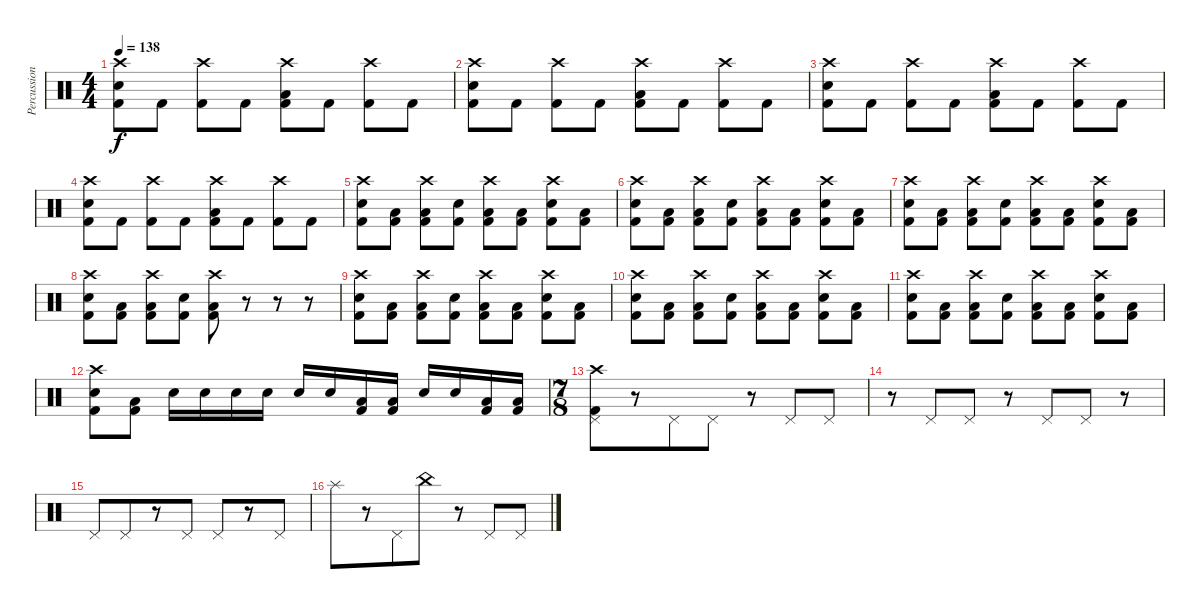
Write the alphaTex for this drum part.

\track ("Percussion" "Percussion") {instrument percussion}
\staff {score}
\articulation defaults
\ts (4 4)
\tempo 138
\clef neutral
\ks c
("Crash high (hit)" "Electric Snare (hit)" "Kick (hit) 2").8{dy f} "Kick (hit) 2".8 ("Crash high (hit)" "Kick (hit) 2").8 "Kick (hit) 2".8 ("Crash high (hit)" "Low Tom (hit)" "Kick (hit) 2").8 "Kick (hit) 2".8 ("Crash high (hit)" "Kick (hit) 2").8 "Kick (hit) 2".8 |
("Crash high (hit)" "Electric Snare (hit)" "Kick (hit) 2").8 "Kick (hit) 2".8 ("Crash high (hit)" "Kick (hit) 2").8 "Kick (hit) 2".8 ("Crash high (hit)" "Low Tom (hit)" "Kick (hit) 2").8 "Kick (hit) 2".8 ("Crash high (hit)" "Kick (hit) 2").8 "Kick (hit) 2".8 |
("Crash high (hit)" "Electric Snare (hit)" "Kick (hit) 2").8 "Kick (hit) 2".8 ("Crash high (hit)" "Kick (hit) 2").8 "Kick (hit) 2".8 ("Crash high (hit)" "Low Tom (hit)" "Kick (hit) 2").8 "Kick (hit) 2".8 ("Crash high (hit)" "Kick (hit) 2").8 "Kick (hit) 2".8 |
("Crash high (hit)" "Electric Snare (hit)" "Kick (hit) 2").8 "Kick (hit) 2".8 ("Crash high (hit)" "Kick (hit) 2").8 "Kick (hit) 2".8 ("Crash high (hit)" "Low Tom (hit)" "Kick (hit) 2").8 "Kick (hit) 2".8 ("Crash high (hit)" "Kick (hit) 2").8 "Kick (hit) 2".8 |
("Crash high (hit)" "Electric Snare (hit)" "Kick (hit) 2").8 ("Low Tom (hit)" "Kick (hit) 2").8 ("Crash high (hit)" "Low Tom (hit)" "Kick (hit) 2").8 ("Electric Snare (hit)" "Kick (hit) 2").8 ("Crash high (hit)" "Low Tom (hit)" "Kick (hit) 2").8 ("Low Tom (hit)" "Kick (hit) 2").8 ("Crash high (hit)" "Electric Snare (hit)" "Kick (hit) 2").8 ("Low Tom (hit)" "Kick (hit) 2").8 |
("Crash high (hit)" "Electric Snare (hit)" "Kick (hit) 2").8 ("Low Tom (hit)" "Kick (hit) 2").8 ("Crash high (hit)" "Low Tom (hit)" "Kick (hit) 2").8 ("Electric Snare (hit)" "Kick (hit) 2").8 ("Crash high (hit)" "Low Tom (hit)" "Kick (hit) 2").8 ("Low Tom (hit)" "Kick (hit) 2").8 ("Crash high (hit)" "Electric Snare (hit)" "Kick (hit) 2").8 ("Low Tom (hit)" "Kick (hit) 2").8 |
("Crash high (hit)" "Electric Snare (hit)" "Kick (hit) 2").8 ("Low Tom (hit)" "Kick (hit) 2").8 ("Crash high (hit)" "Low Tom (hit)" "Kick (hit) 2").8 ("Electric Snare (hit)" "Kick (hit) 2").8 ("Crash high (hit)" "Low Tom (hit)" "Kick (hit) 2").8 ("Low Tom (hit)" "Kick (hit) 2").8 ("Crash high (hit)" "Electric Snare (hit)" "Kick (hit) 2").8 ("Low Tom (hit)" "Kick (hit) 2").8 |
("Crash high (hit)" "Electric Snare (hit)" "Kick (hit) 2").8 ("Low Tom (hit)" "Kick (hit) 2").8 ("Crash high (hit)" "Low Tom (hit)" "Kick (hit) 2").8 ("Electric Snare (hit)" "Kick (hit) 2").8 ("Crash high (hit)" "Low Tom (hit)" "Kick (hit) 2").8 r.8 r.8 r.8 |
("Crash high (hit)" "Electric Snare (hit)" "Kick (hit) 2").8 ("Low Tom (hit)" "Kick (hit) 2").8 ("Crash high (hit)" "Low Tom (hit)" "Kick (hit) 2").8 ("Electric Snare (hit)" "Kick (hit) 2").8 ("Crash high (hit)" "Low Tom (hit)" "Kick (hit) 2").8 ("Low Tom (hit)" "Kick (hit) 2").8 ("Crash high (hit)" "Electric Snare (hit)" "Kick (hit) 2").8 ("Low Tom (hit)" "Kick (hit) 2").8 |
("Crash high (hit)" "Electric Snare (hit)" "Kick (hit) 2").8 ("Low Tom (hit)" "Kick (hit) 2").8 ("Crash high (hit)" "Low Tom (hit)" "Kick (hit) 2").8 ("Electric Snare (hit)" "Kick (hit) 2").8 ("Crash high (hit)" "Low Tom (hit)" "Kick (hit) 2").8 ("Low Tom (hit)" "Kick (hit) 2").8 ("Crash high (hit)" "Electric Snare (hit)" "Kick (hit) 2").8 ("Low Tom (hit)" "Kick (hit) 2").8 |
("Crash high (hit)" "Electric Snare (hit)" "Kick (hit) 2").8 ("Low Tom (hit)" "Kick (hit) 2").8 ("Crash high (hit)" "Low Tom (hit)" "Kick (hit) 2").8 ("Electric Snare (hit)" "Kick (hit) 2").8 ("Crash high (hit)" "Low Tom (hit)" "Kick (hit) 2").8 ("Low Tom (hit)" "Kick (hit) 2").8 ("Crash high (hit)" "Electric Snare (hit)" "Kick (hit) 2").8 ("Low Tom (hit)" "Kick (hit) 2").8 |
("Crash high (hit)" "Electric Snare (hit)" "Kick (hit) 2").8 ("Low Tom (hit)" "Kick (hit) 2").8 "Electric Snare (hit)".16 "Electric Snare (hit)".16 "Electric Snare (hit)".16 "Electric Snare (hit)".16 "Electric Snare (hit)".16 "Electric Snare (hit)".16 ("Low Tom (hit)" "Kick (hit) 2").16 ("Low Tom (hit)" "Kick (hit) 2").16 "Electric Snare (hit)".16 "Electric Snare (hit)".16 ("Low Tom (hit)" "Kick (hit) 2").16 ("Low Tom (hit)" "Kick (hit) 2").16 |
\ts (7 8)
("Crash high (hit)" "Pedal Hi-Hat (hit)" "Kick (hit) 2").8 r.8 "Pedal Hi-Hat (hit)".8 "Pedal Hi-Hat (hit)".8 r.8 "Pedal Hi-Hat (hit)".8 "Pedal Hi-Hat (hit)".8 |
r.8 "Pedal Hi-Hat (hit)".8 "Pedal Hi-Hat (hit)".8 r.8 "Pedal Hi-Hat (hit)".8 "Pedal Hi-Hat (hit)".8 r.8 |
"Pedal Hi-Hat (hit)".8 "Pedal Hi-Hat (hit)".8 r.8 "Pedal Hi-Hat (hit)".8 "Pedal Hi-Hat (hit)".8 r.8 "Pedal Hi-Hat (hit)".8 |
"Splash (hit)".8 r.8 "Pedal Hi-Hat (hit)".8 "China (hit)".8 r.8 "Pedal Hi-Hat (hit)".8 "Pedal Hi-Hat (hit)".8
